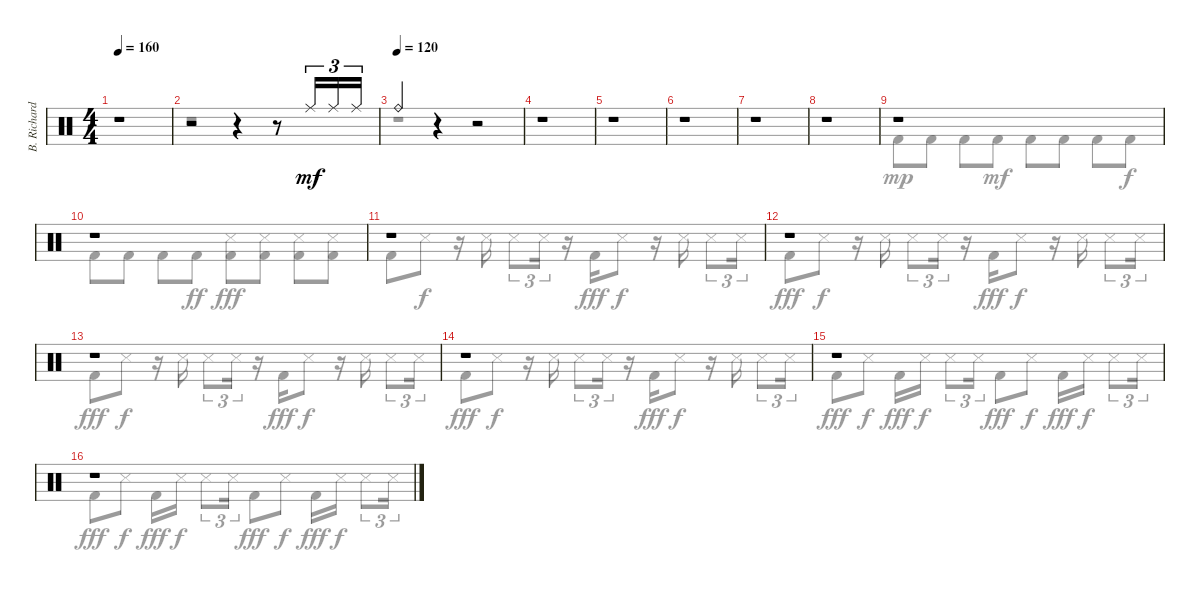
\track ("B. Richardson Drums" "B. Richard") {instrument percussion}
\staff {score}
\articulation defaults
\voice
\ts (4 4)
\tempo 160
\clef neutral
\ks c
r.1{dy mf} |
r.2 r.4 r.8 "Ride (middle)".16{tu (3 2)} "Ride (middle)".16{tu (3 2)} "Ride (middle)".16{tu (3 2)} |
\tempo (120)
"Ride (bell)".4 r.4 r.2 |
r.1 |
r.1 |
r.1 |
r.1 |
r.1 |
r.1 |
r.1 |
r.1 |
r.1 |
r.1 |
r.1 |
r.1 |
r.1
\voice
\clef neutral
\ottava regular
\simile none
\ks c
r.1{dy fff} |
r.1 |
r.1 |
r.1 |
r.1 |
r.1 |
r.1 |
r.1 |
"Kick (hit) 2".8{dy mp} "Kick (hit) 2".8 "Kick (hit) 2".8 "Kick (hit) 2".8{dy mf} "Kick (hit) 2".8 "Kick (hit) 2".8 "Kick (hit) 2".8 "Kick (hit) 2".8{dy f} |
"Kick (hit) 2".8 "Kick (hit) 2".8 "Kick (hit) 2".8 "Kick (hit) 2".8{dy ff} ("Snare (side stick) 3" "Kick (hit) 2").8{dy fff} ("Snare (side stick) 3" "Kick (hit) 2").8 ("Snare (side stick) 3" "Kick (hit) 2").8 ("Snare (side stick) 3" "Kick (hit) 2").8 |
"Kick (hit) 2".8 "Snare (side stick) 3".8{dy f} r.16 "Snare (side stick) 3".16 "Snare (side stick) 3".8{tu (3 2)} "Snare (side stick) 3".16{tu (3 2)} r.16 "Kick (hit) 2".16{dy fff} "Snare (side stick) 3".8{dy f} r.16 "Snare (side stick) 3".16 "Snare (side stick) 3".8{tu (3 2)} "Snare (side stick) 3".16{tu (3 2)} |
"Kick (hit) 2".8{dy fff} "Snare (side stick) 3".8{dy f} r.16 "Snare (side stick) 3".16 "Snare (side stick) 3".8{tu (3 2)} "Snare (side stick) 3".16{tu (3 2)} r.16 "Kick (hit) 2".16{dy fff} "Snare (side stick) 3".8{dy f} r.16 "Snare (side stick) 3".16 "Snare (side stick) 3".8{tu (3 2)} "Snare (side stick) 3".16{tu (3 2)} |
"Kick (hit) 2".8{dy fff} "Snare (side stick) 3".8{dy f} r.16 "Snare (side stick) 3".16 "Snare (side stick) 3".8{tu (3 2)} "Snare (side stick) 3".16{tu (3 2)} r.16 "Kick (hit) 2".16{dy fff} "Snare (side stick) 3".8{dy f} r.16 "Snare (side stick) 3".16 "Snare (side stick) 3".8{tu (3 2)} "Snare (side stick) 3".16{tu (3 2)} |
"Kick (hit) 2".8{dy fff} "Snare (side stick) 3".8{dy f} r.16 "Snare (side stick) 3".16 "Snare (side stick) 3".8{tu (3 2)} "Snare (side stick) 3".16{tu (3 2)} r.16 "Kick (hit) 2".16{dy fff} "Snare (side stick) 3".8{dy f} r.16 "Snare (side stick) 3".16 "Snare (side stick) 3".8{tu (3 2)} "Snare (side stick) 3".16{tu (3 2)} |
"Kick (hit) 2".8{dy fff} "Snare (side stick) 3".8{dy f} "Kick (hit) 2".16{dy fff} "Snare (side stick) 3".16{dy f} "Snare (side stick) 3".8{tu (3 2)} "Snare (side stick) 3".16{tu (3 2)} "Kick (hit) 2".8{dy fff} "Snare (side stick) 3".8{dy f} "Kick (hit) 2".16{dy fff} "Snare (side stick) 3".16{dy f} "Snare (side stick) 3".8{tu (3 2)} "Snare (side stick) 3".16{tu (3 2)} |
"Kick (hit) 2".8{dy fff} "Snare (side stick) 3".8{dy f} "Kick (hit) 2".16{dy fff} "Snare (side stick) 3".16{dy f} "Snare (side stick) 3".8{tu (3 2)} "Snare (side stick) 3".16{tu (3 2)} "Kick (hit) 2".8{dy fff} "Snare (side stick) 3".8{dy f} "Kick (hit) 2".16{dy fff} "Snare (side stick) 3".16{dy f} "Snare (side stick) 3".8{tu (3 2)} "Snare (side stick) 3".16{tu (3 2)}
